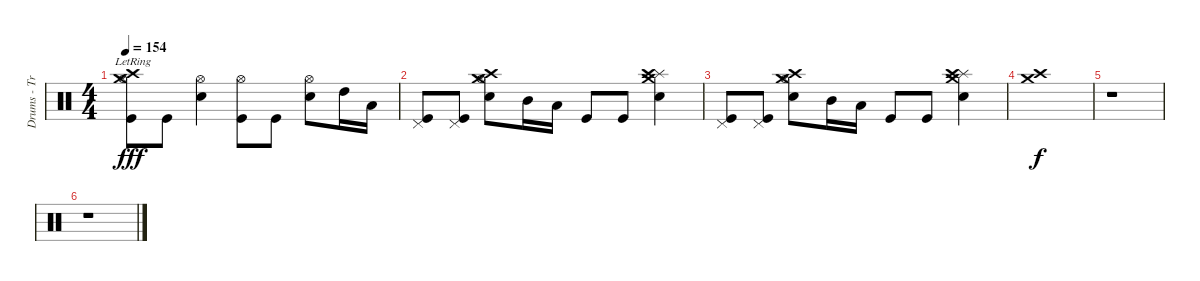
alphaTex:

\track ("Drums - Travis" "Drums - Tr") {instrument percussion}
\staff {score}
\articulation defaults
\ts (4 4)
\tempo 154
\clef neutral
\ks c
("Crash high (hit)"{lr} "Hi-Hat (open)" "Crash medium (hit)"{lr} "Kick (hit)").8{dy fff} "Kick (hit)".8 ("Hi-Hat (open)" "Snare (hit) 2").4 ("Hi-Hat (open)" "Kick (hit)").8 "Kick (hit)".8 ("Hi-Hat (open)" "Snare (hit) 2").8 "High Tom (hit)".16 "Low Tom (hit)".16 |
("Pedal Hi-Hat (hit)" "Kick (hit)").8 ("Pedal Hi-Hat (hit)" "Kick (hit)").8 ("Crash high (hit)" "Crash medium (hit)" "Hi-Hat (open)" "Snare (hit) 2").8 "Mid Tom (hit)".16 "Low Tom (hit)".16 "Kick (hit)".8 "Kick (hit)".8 ("Crash medium (hit)" "Splash (hit)" "Crash high (hit)" "Snare (hit) 2").4 |
("Pedal Hi-Hat (hit)" "Kick (hit)").8 ("Pedal Hi-Hat (hit)" "Kick (hit)").8 ("Crash high (hit)" "Crash medium (hit)" "Hi-Hat (open)" "Snare (hit) 2").8 "Mid Tom (hit)".16 "Low Tom (hit)".16 "Kick (hit)".8 "Kick (hit)".8 ("Crash medium (hit)" "Splash (hit)" "Crash high (hit)" "Snare (hit) 2").4 |
("Crash high (hit)" "Crash medium (hit)").1{dy f} |
r.1 |
r.1
